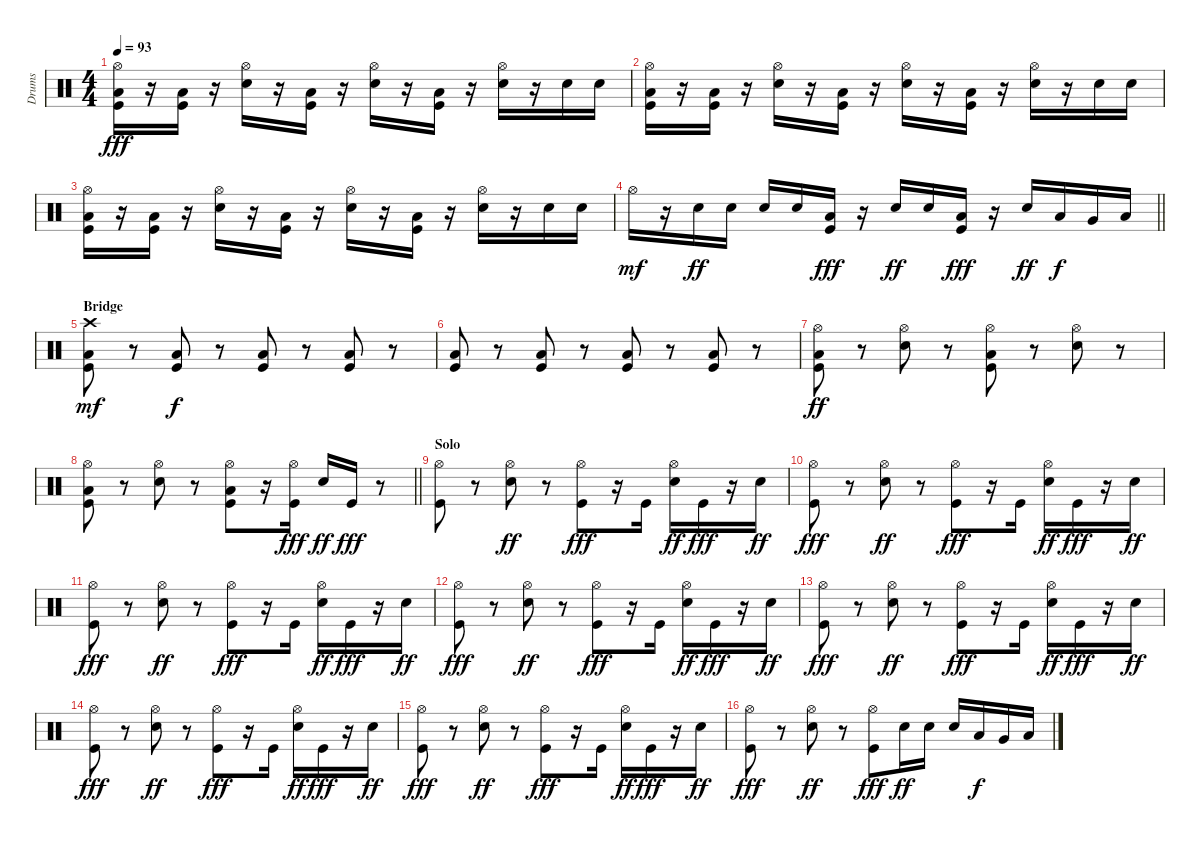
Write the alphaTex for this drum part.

\track ("Drums" "Drums") {instrument percussion}
\staff {score}
\articulation defaults
\ts (4 4)
\tempo 93
\clef neutral
\ks c
("Hi-Hat (open)" "Low Floor Tom (hit)" "Kick (hit)").16{dy fff} r.16 ("Low Floor Tom (hit)" "Kick (hit)").16 r.16 ("Hi-Hat (open)" "Electric Snare (hit)").16 r.16 ("Low Floor Tom (hit)" "Kick (hit)").16 r.16 ("Hi-Hat (open)" "Electric Snare (hit)").16 r.16 ("Low Floor Tom (hit)" "Kick (hit)").16 r.16 ("Hi-Hat (open)" "Electric Snare (hit)").16 r.16 "Electric Snare (hit)".16 "Electric Snare (hit)".16 |
("Hi-Hat (open)" "Low Floor Tom (hit)" "Kick (hit)").16 r.16 ("Low Floor Tom (hit)" "Kick (hit)").16 r.16 ("Hi-Hat (open)" "Electric Snare (hit)").16 r.16 ("Low Floor Tom (hit)" "Kick (hit)").16 r.16 ("Hi-Hat (open)" "Electric Snare (hit)").16 r.16 ("Low Floor Tom (hit)" "Kick (hit)").16 r.16 ("Hi-Hat (open)" "Electric Snare (hit)").16 r.16 "Electric Snare (hit)".16 "Electric Snare (hit)".16 |
("Hi-Hat (open)" "Low Floor Tom (hit)" "Kick (hit)").16 r.16 ("Low Floor Tom (hit)" "Kick (hit)").16 r.16 ("Hi-Hat (open)" "Electric Snare (hit)").16 r.16 ("Low Floor Tom (hit)" "Kick (hit)").16 r.16 ("Hi-Hat (open)" "Electric Snare (hit)").16 r.16 ("Low Floor Tom (hit)" "Kick (hit)").16 r.16 ("Hi-Hat (open)" "Electric Snare (hit)").16 r.16 "Electric Snare (hit)".16 "Electric Snare (hit)".16 |
\barLineRight lightlight "Hi-Hat (open)".16{dy mf}
r.16 "Electric Snare (hit)".16{dy ff} "Electric Snare (hit)".16 "Electric Snare (hit)".16 "Electric Snare (hit)".16 ("Low Floor Tom (hit)" "Kick (hit)").16{dy fff} r.16 "Electric Snare (hit)".16{dy ff} "Electric Snare (hit)".16 ("Low Floor Tom (hit)" "Kick (hit)").16{dy fff} r.16 "Electric Snare (hit)".16{dy ff} "Low Tom (hit)".16{dy f} "Very Low Tom (hit)".16 "Low Floor Tom (hit)".16 |
\section ("" "Bridge")
("Crash high (hit)" "Low Floor Tom (hit)" "Kick (hit)").8{dy mf} r.8 ("Low Floor Tom (hit)" "Kick (hit)").8{dy f} r.8 ("Low Floor Tom (hit)" "Kick (hit)").8 r.8 ("Low Floor Tom (hit)" "Kick (hit)").8 r.8 |
("Low Floor Tom (hit)" "Kick (hit)").8 r.8 ("Low Floor Tom (hit)" "Kick (hit)").8 r.8 ("Low Floor Tom (hit)" "Kick (hit)").8 r.8 ("Low Floor Tom (hit)" "Kick (hit)").8 r.8 |
("Hi-Hat (open)" "Low Floor Tom (hit)" "Kick (hit)").8{dy ff} r.8 ("Hi-Hat (open)" "Electric Snare (hit)").8 r.8 ("Hi-Hat (open)" "Low Floor Tom (hit)" "Kick (hit)").8 r.8 ("Hi-Hat (open)" "Electric Snare (hit)").8 r.8 |
\barLineRight lightlight
("Hi-Hat (open)" "Low Floor Tom (hit)" "Kick (hit)").8 r.8 ("Hi-Hat (open)" "Electric Snare (hit)").8 r.8 ("Hi-Hat (open)" "Low Floor Tom (hit)" "Kick (hit)").8 r.16 ("Hi-Hat (open)" "Kick (hit)").16{dy fff} "Electric Snare (hit)".16{dy ff} "Kick (hit)".16{dy fff} r.8 |
\section ("" "Solo")
("Hi-Hat (open)" "Kick (hit)").8 r.8 ("Hi-Hat (open)" "Electric Snare (hit)").8{dy ff} r.8 ("Hi-Hat (open)" "Kick (hit)").8{dy fff} r.16 "Kick (hit)".16 ("Hi-Hat (open)" "Electric Snare (hit)").16{dy ff} "Kick (hit)".16{dy fff} r.16 "Electric Snare (hit)".16{dy ff} |
("Hi-Hat (open)" "Kick (hit)").8{dy fff} r.8 ("Hi-Hat (open)" "Electric Snare (hit)").8{dy ff} r.8 ("Hi-Hat (open)" "Kick (hit)").8{dy fff} r.16 "Kick (hit)".16 ("Hi-Hat (open)" "Electric Snare (hit)").16{dy ff} "Kick (hit)".16{dy fff} r.16 "Electric Snare (hit)".16{dy ff} |
("Hi-Hat (open)" "Kick (hit)").8{dy fff} r.8 ("Hi-Hat (open)" "Electric Snare (hit)").8{dy ff} r.8 ("Hi-Hat (open)" "Kick (hit)").8{dy fff} r.16 "Kick (hit)".16 ("Hi-Hat (open)" "Electric Snare (hit)").16{dy ff} "Kick (hit)".16{dy fff} r.16 "Electric Snare (hit)".16{dy ff} |
("Hi-Hat (open)" "Kick (hit)").8{dy fff} r.8 ("Hi-Hat (open)" "Electric Snare (hit)").8{dy ff} r.8 ("Hi-Hat (open)" "Kick (hit)").8{dy fff} r.16 "Kick (hit)".16 ("Hi-Hat (open)" "Electric Snare (hit)").16{dy ff} "Kick (hit)".16{dy fff} r.16 "Electric Snare (hit)".16{dy ff} |
("Hi-Hat (open)" "Kick (hit)").8{dy fff} r.8 ("Hi-Hat (open)" "Electric Snare (hit)").8{dy ff} r.8 ("Hi-Hat (open)" "Kick (hit)").8{dy fff} r.16 "Kick (hit)".16 ("Hi-Hat (open)" "Electric Snare (hit)").16{dy ff} "Kick (hit)".16{dy fff} r.16 "Electric Snare (hit)".16{dy ff} |
("Hi-Hat (open)" "Kick (hit)").8{dy fff} r.8 ("Hi-Hat (open)" "Electric Snare (hit)").8{dy ff} r.8 ("Hi-Hat (open)" "Kick (hit)").8{dy fff} r.16 "Kick (hit)".16 ("Hi-Hat (open)" "Electric Snare (hit)").16{dy ff} "Kick (hit)".16{dy fff} r.16 "Electric Snare (hit)".16{dy ff} |
("Hi-Hat (open)" "Kick (hit)").8{dy fff} r.8 ("Hi-Hat (open)" "Electric Snare (hit)").8{dy ff} r.8 ("Hi-Hat (open)" "Kick (hit)").8{dy fff} r.16 "Kick (hit)".16 ("Hi-Hat (open)" "Electric Snare (hit)").16{dy ff} "Kick (hit)".16{dy fff} r.16 "Electric Snare (hit)".16{dy ff} |
("Hi-Hat (open)" "Kick (hit)").8{dy fff} r.8 ("Hi-Hat (open)" "Electric Snare (hit)").8{dy ff} r.8 ("Hi-Hat (open)" "Kick (hit)").8{dy fff} "Electric Snare (hit)".16{dy ff} "Electric Snare (hit)".16 "Electric Snare (hit)".16 "Low Tom (hit)".16{dy f} "Very Low Tom (hit)".16 "Low Floor Tom (hit)".16
